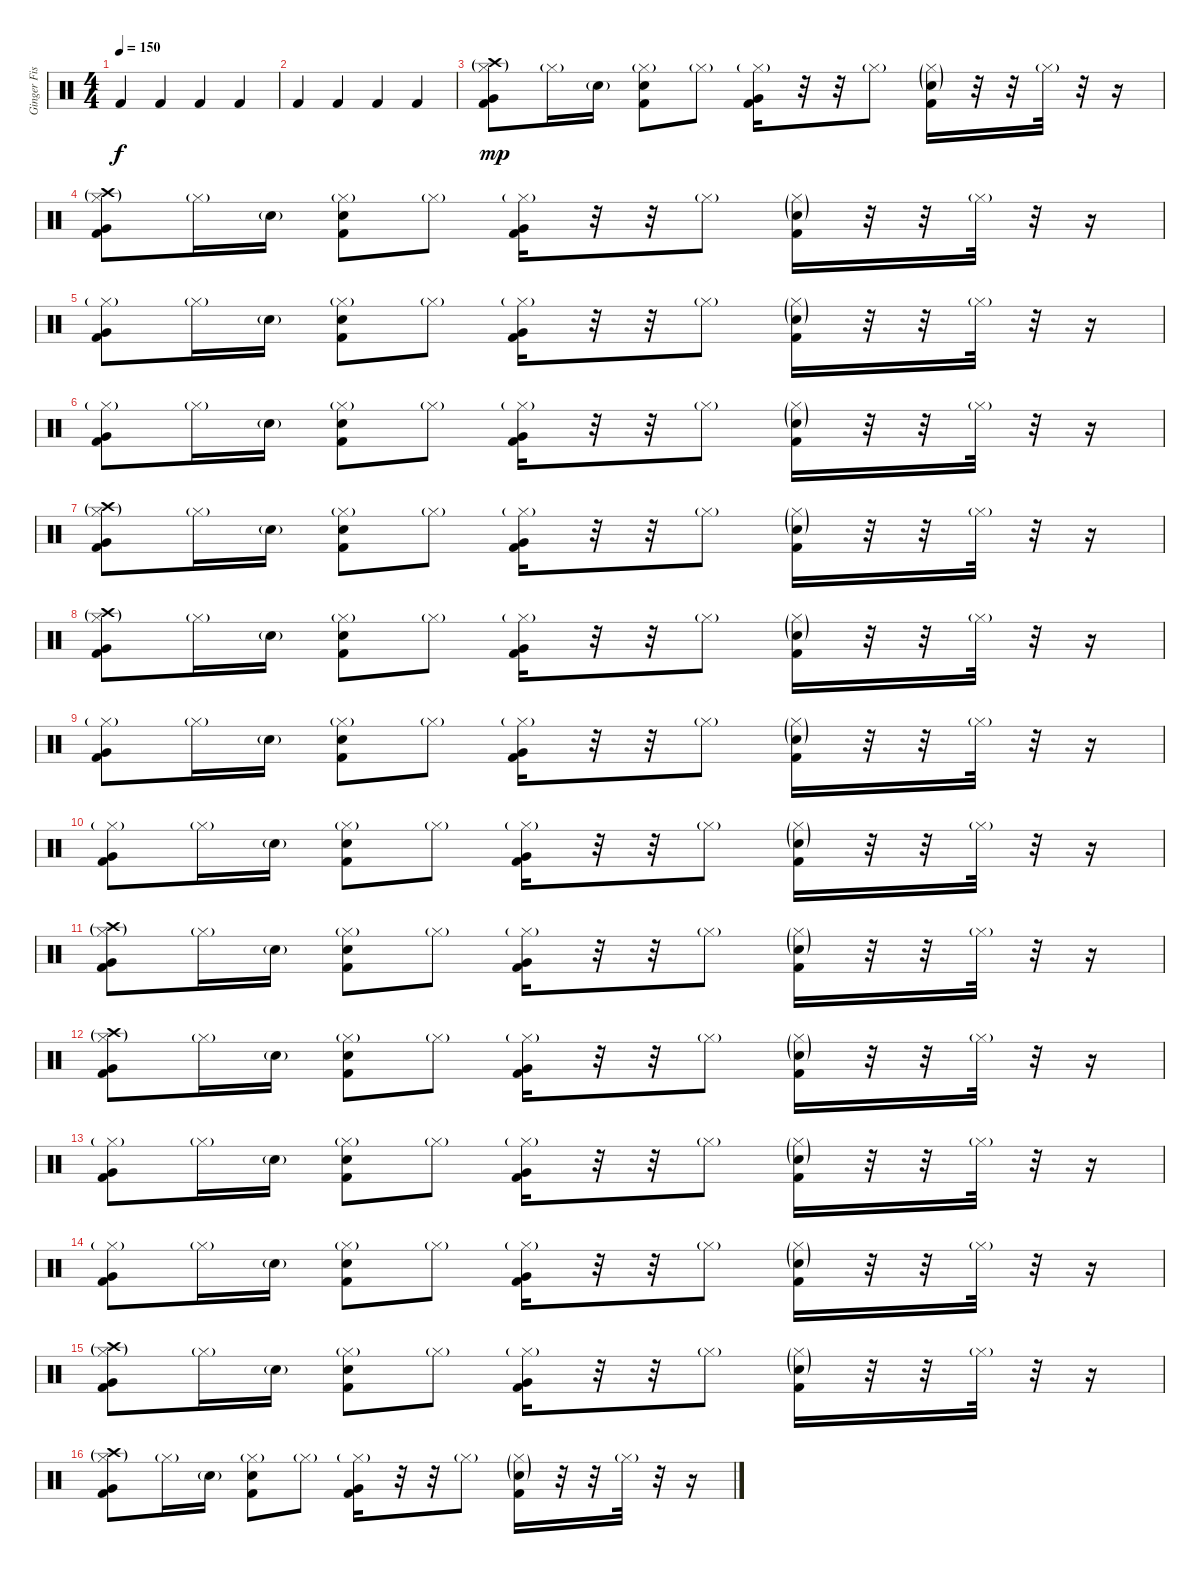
\track ("Ginger Fish" "Ginger Fis") {instrument percussion}
\staff {score}
\articulation defaults
\ts (4 4)
\tempo 150
\clef neutral
\ks c "Kick (hit) 2".4{dy f} "Kick (hit) 2".4 "Kick (hit) 2".4 "Kick (hit) 2".4
|
"Kick (hit) 2".4 "Kick (hit) 2".4 "Kick (hit) 2".4 "Kick (hit) 2".4 |
("Hi-Hat (closed)"{g} "Crash high (hit)"{g} "Very Low Tom (hit)" "Kick (hit) 2").8{dy mp} "Hi-Hat (closed)"{g}.16 "Electric Snare (hit)"{g}.16 ("Hi-Hat (closed)"{g} "Electric Snare (hit)" "Kick (hit) 2").8 "Hi-Hat (closed)"{g}.8 ("Hi-Hat (closed)"{g} "Very Low Tom (hit)" "Kick (hit) 2").16 r.32 r.32 "Hi-Hat (closed)"{g}.8 ("Hi-Hat (closed)"{g} "Electric Snare (hit)"{g} "Kick (hit) 2").16 r.32 r.32 "Hi-Hat (closed)"{g}.32 r.32 r.16 |
("Hi-Hat (closed)"{g} "Crash high (hit)"{g} "Very Low Tom (hit)" "Kick (hit) 2").8 "Hi-Hat (closed)"{g}.16 "Electric Snare (hit)"{g}.16 ("Hi-Hat (closed)"{g} "Electric Snare (hit)" "Kick (hit) 2").8 "Hi-Hat (closed)"{g}.8 ("Hi-Hat (closed)"{g} "Very Low Tom (hit)" "Kick (hit) 2").16 r.32 r.32 "Hi-Hat (closed)"{g}.8 ("Hi-Hat (closed)"{g} "Electric Snare (hit)"{g} "Kick (hit) 2").16 r.32 r.32 "Hi-Hat (closed)"{g}.32 r.32 r.16 |
("Hi-Hat (closed)"{g} "Very Low Tom (hit)" "Kick (hit) 2").8 "Hi-Hat (closed)"{g}.16 "Electric Snare (hit)"{g}.16 ("Hi-Hat (closed)"{g} "Electric Snare (hit)" "Kick (hit) 2").8 "Hi-Hat (closed)"{g}.8 ("Hi-Hat (closed)"{g} "Very Low Tom (hit)" "Kick (hit) 2").16 r.32 r.32 "Hi-Hat (closed)"{g}.8 ("Hi-Hat (closed)"{g} "Electric Snare (hit)"{g} "Kick (hit) 2").16 r.32 r.32 "Hi-Hat (closed)"{g}.32 r.32 r.16 |
("Hi-Hat (closed)"{g} "Very Low Tom (hit)" "Kick (hit) 2").8 "Hi-Hat (closed)"{g}.16 "Electric Snare (hit)"{g}.16 ("Hi-Hat (closed)"{g} "Electric Snare (hit)" "Kick (hit) 2").8 "Hi-Hat (closed)"{g}.8 ("Hi-Hat (closed)"{g} "Very Low Tom (hit)" "Kick (hit) 2").16 r.32 r.32 "Hi-Hat (closed)"{g}.8 ("Hi-Hat (closed)"{g} "Electric Snare (hit)"{g} "Kick (hit) 2").16 r.32 r.32 "Hi-Hat (closed)"{g}.32 r.32 r.16 |
("Hi-Hat (closed)"{g} "Crash high (hit)"{g} "Very Low Tom (hit)" "Kick (hit) 2").8 "Hi-Hat (closed)"{g}.16 "Electric Snare (hit)"{g}.16 ("Hi-Hat (closed)"{g} "Electric Snare (hit)" "Kick (hit) 2").8 "Hi-Hat (closed)"{g}.8 ("Hi-Hat (closed)"{g} "Very Low Tom (hit)" "Kick (hit) 2").16 r.32 r.32 "Hi-Hat (closed)"{g}.8 ("Hi-Hat (closed)"{g} "Electric Snare (hit)"{g} "Kick (hit) 2").16 r.32 r.32 "Hi-Hat (closed)"{g}.32 r.32 r.16 |
("Hi-Hat (closed)"{g} "Crash high (hit)"{g} "Very Low Tom (hit)" "Kick (hit) 2").8 "Hi-Hat (closed)"{g}.16 "Electric Snare (hit)"{g}.16 ("Hi-Hat (closed)"{g} "Electric Snare (hit)" "Kick (hit) 2").8 "Hi-Hat (closed)"{g}.8 ("Hi-Hat (closed)"{g} "Very Low Tom (hit)" "Kick (hit) 2").16 r.32 r.32 "Hi-Hat (closed)"{g}.8 ("Hi-Hat (closed)"{g} "Electric Snare (hit)"{g} "Kick (hit) 2").16 r.32 r.32 "Hi-Hat (closed)"{g}.32 r.32 r.16 |
("Hi-Hat (closed)"{g} "Very Low Tom (hit)" "Kick (hit) 2").8 "Hi-Hat (closed)"{g}.16 "Electric Snare (hit)"{g}.16 ("Hi-Hat (closed)"{g} "Electric Snare (hit)" "Kick (hit) 2").8 "Hi-Hat (closed)"{g}.8 ("Hi-Hat (closed)"{g} "Very Low Tom (hit)" "Kick (hit) 2").16 r.32 r.32 "Hi-Hat (closed)"{g}.8 ("Hi-Hat (closed)"{g} "Electric Snare (hit)"{g} "Kick (hit) 2").16 r.32 r.32 "Hi-Hat (closed)"{g}.32 r.32 r.16 |
("Hi-Hat (closed)"{g} "Very Low Tom (hit)" "Kick (hit) 2").8 "Hi-Hat (closed)"{g}.16 "Electric Snare (hit)"{g}.16 ("Hi-Hat (closed)"{g} "Electric Snare (hit)" "Kick (hit) 2").8 "Hi-Hat (closed)"{g}.8 ("Hi-Hat (closed)"{g} "Very Low Tom (hit)" "Kick (hit) 2").16 r.32 r.32 "Hi-Hat (closed)"{g}.8 ("Hi-Hat (closed)"{g} "Electric Snare (hit)"{g} "Kick (hit) 2").16 r.32 r.32 "Hi-Hat (closed)"{g}.32 r.32 r.16 |
("Hi-Hat (closed)"{g} "Crash high (hit)"{g} "Very Low Tom (hit)" "Kick (hit) 2").8 "Hi-Hat (closed)"{g}.16 "Electric Snare (hit)"{g}.16 ("Hi-Hat (closed)"{g} "Electric Snare (hit)" "Kick (hit) 2").8 "Hi-Hat (closed)"{g}.8 ("Hi-Hat (closed)"{g} "Very Low Tom (hit)" "Kick (hit) 2").16 r.32 r.32 "Hi-Hat (closed)"{g}.8 ("Hi-Hat (closed)"{g} "Electric Snare (hit)"{g} "Kick (hit) 2").16 r.32 r.32 "Hi-Hat (closed)"{g}.32 r.32 r.16 |
("Hi-Hat (closed)"{g} "Crash high (hit)"{g} "Very Low Tom (hit)" "Kick (hit) 2").8 "Hi-Hat (closed)"{g}.16 "Electric Snare (hit)"{g}.16 ("Hi-Hat (closed)"{g} "Electric Snare (hit)" "Kick (hit) 2").8 "Hi-Hat (closed)"{g}.8 ("Hi-Hat (closed)"{g} "Very Low Tom (hit)" "Kick (hit) 2").16 r.32 r.32 "Hi-Hat (closed)"{g}.8 ("Hi-Hat (closed)"{g} "Electric Snare (hit)"{g} "Kick (hit) 2").16 r.32 r.32 "Hi-Hat (closed)"{g}.32 r.32 r.16 |
("Hi-Hat (closed)"{g} "Very Low Tom (hit)" "Kick (hit) 2").8 "Hi-Hat (closed)"{g}.16 "Electric Snare (hit)"{g}.16 ("Hi-Hat (closed)"{g} "Electric Snare (hit)" "Kick (hit) 2").8 "Hi-Hat (closed)"{g}.8 ("Hi-Hat (closed)"{g} "Very Low Tom (hit)" "Kick (hit) 2").16 r.32 r.32 "Hi-Hat (closed)"{g}.8 ("Hi-Hat (closed)"{g} "Electric Snare (hit)"{g} "Kick (hit) 2").16 r.32 r.32 "Hi-Hat (closed)"{g}.32 r.32 r.16 |
("Hi-Hat (closed)"{g} "Very Low Tom (hit)" "Kick (hit) 2").8 "Hi-Hat (closed)"{g}.16 "Electric Snare (hit)"{g}.16 ("Hi-Hat (closed)"{g} "Electric Snare (hit)" "Kick (hit) 2").8 "Hi-Hat (closed)"{g}.8 ("Hi-Hat (closed)"{g} "Very Low Tom (hit)" "Kick (hit) 2").16 r.32 r.32 "Hi-Hat (closed)"{g}.8 ("Hi-Hat (closed)"{g} "Electric Snare (hit)"{g} "Kick (hit) 2").16 r.32 r.32 "Hi-Hat (closed)"{g}.32 r.32 r.16 |
("Hi-Hat (closed)"{g} "Crash high (hit)"{g} "Very Low Tom (hit)" "Kick (hit) 2").8 "Hi-Hat (closed)"{g}.16 "Electric Snare (hit)"{g}.16 ("Hi-Hat (closed)"{g} "Electric Snare (hit)" "Kick (hit) 2").8 "Hi-Hat (closed)"{g}.8 ("Hi-Hat (closed)"{g} "Very Low Tom (hit)" "Kick (hit) 2").16 r.32 r.32 "Hi-Hat (closed)"{g}.8 ("Hi-Hat (closed)"{g} "Electric Snare (hit)"{g} "Kick (hit) 2").16 r.32 r.32 "Hi-Hat (closed)"{g}.32 r.32 r.16 |
("Hi-Hat (closed)"{g} "Crash high (hit)"{g} "Very Low Tom (hit)" "Kick (hit) 2").8 "Hi-Hat (closed)"{g}.16 "Electric Snare (hit)"{g}.16 ("Hi-Hat (closed)"{g} "Electric Snare (hit)" "Kick (hit) 2").8 "Hi-Hat (closed)"{g}.8 ("Hi-Hat (closed)"{g} "Very Low Tom (hit)" "Kick (hit) 2").16 r.32 r.32 "Hi-Hat (closed)"{g}.8 ("Hi-Hat (closed)"{g} "Electric Snare (hit)"{g} "Kick (hit) 2").16 r.32 r.32 "Hi-Hat (closed)"{g}.32 r.32 r.16
